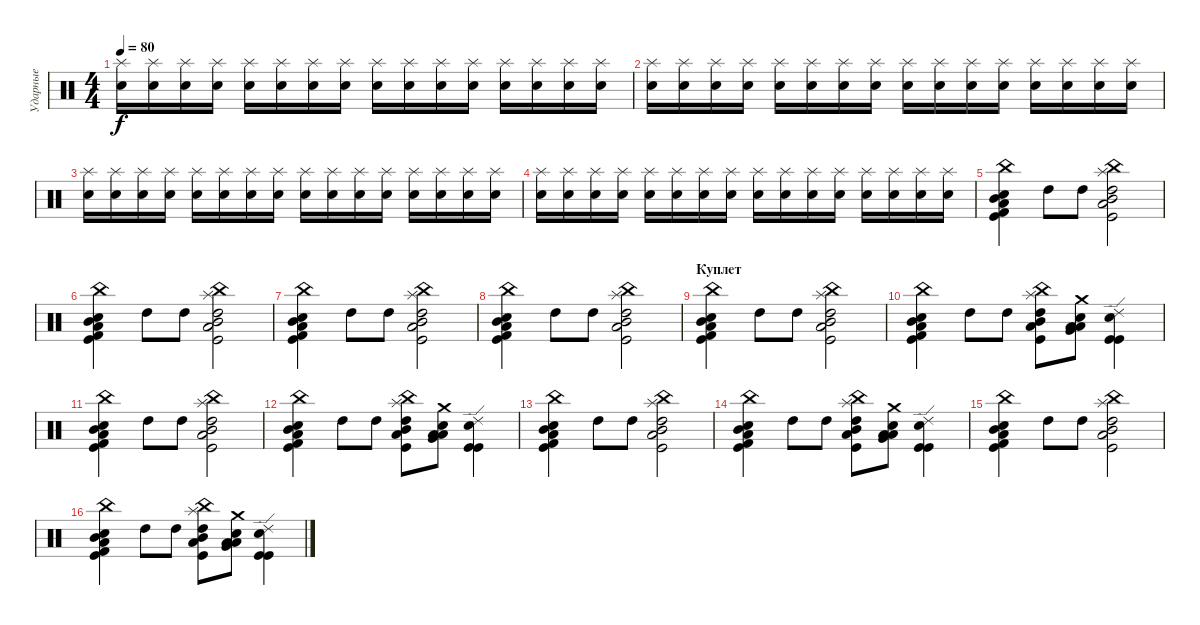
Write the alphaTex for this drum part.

\track ("Ударные" "Ударные") {instrument percussion}
\staff {score}
\articulation defaults
\ts (4 4)
\tempo 80
\clef neutral
\ks c
("Splash (hit)" "Snare (hit) 2").16{dy f} ("Splash (hit)" "Snare (hit) 2").16 ("Splash (hit)" "Snare (hit) 2").16 ("Splash (hit)" "Snare (hit) 2").16 ("Splash (hit)" "Snare (hit) 2").16 ("Splash (hit)" "Snare (hit) 2").16 ("Splash (hit)" "Snare (hit) 2").16 ("Splash (hit)" "Snare (hit) 2").16 ("Splash (hit)" "Snare (hit) 2").16 ("Splash (hit)" "Snare (hit) 2").16 ("Splash (hit)" "Snare (hit) 2").16 ("Splash (hit)" "Snare (hit) 2").16 ("Splash (hit)" "Snare (hit) 2").16 ("Splash (hit)" "Snare (hit) 2").16 ("Splash (hit)" "Snare (hit) 2").16 ("Splash (hit)" "Snare (hit) 2").16 |
("Splash (hit)" "Snare (hit) 2").16 ("Splash (hit)" "Snare (hit) 2").16 ("Splash (hit)" "Snare (hit) 2").16 ("Splash (hit)" "Snare (hit) 2").16 ("Splash (hit)" "Snare (hit) 2").16 ("Splash (hit)" "Snare (hit) 2").16 ("Splash (hit)" "Snare (hit) 2").16 ("Splash (hit)" "Snare (hit) 2").16 ("Splash (hit)" "Snare (hit) 2").16 ("Splash (hit)" "Snare (hit) 2").16 ("Splash (hit)" "Snare (hit) 2").16 ("Splash (hit)" "Snare (hit) 2").16 ("Splash (hit)" "Snare (hit) 2").16 ("Splash (hit)" "Snare (hit) 2").16 ("Splash (hit)" "Snare (hit) 2").16 ("Splash (hit)" "Snare (hit) 2").16 |
("Splash (hit)" "Snare (hit) 2").16 ("Splash (hit)" "Snare (hit) 2").16 ("Splash (hit)" "Snare (hit) 2").16 ("Splash (hit)" "Snare (hit) 2").16 ("Splash (hit)" "Snare (hit) 2").16 ("Splash (hit)" "Snare (hit) 2").16 ("Splash (hit)" "Snare (hit) 2").16 ("Splash (hit)" "Snare (hit) 2").16 ("Splash (hit)" "Snare (hit) 2").16 ("Splash (hit)" "Snare (hit) 2").16 ("Splash (hit)" "Snare (hit) 2").16 ("Splash (hit)" "Snare (hit) 2").16 ("Splash (hit)" "Snare (hit) 2").16 ("Splash (hit)" "Snare (hit) 2").16 ("Splash (hit)" "Snare (hit) 2").16 ("Splash (hit)" "Snare (hit) 2").16 |
("Splash (hit)" "Snare (hit) 2").16 ("Splash (hit)" "Snare (hit) 2").16 ("Splash (hit)" "Snare (hit) 2").16 ("Splash (hit)" "Snare (hit) 2").16 ("Splash (hit)" "Snare (hit) 2").16 ("Splash (hit)" "Snare (hit) 2").16 ("Splash (hit)" "Snare (hit) 2").16 ("Splash (hit)" "Snare (hit) 2").16 ("Splash (hit)" "Snare (hit) 2").16 ("Splash (hit)" "Snare (hit) 2").16 ("Splash (hit)" "Snare (hit) 2").16 ("Splash (hit)" "Snare (hit) 2").16 ("Splash (hit)" "Snare (hit) 2").16 ("Splash (hit)" "Snare (hit) 2").16 ("Splash (hit)" "Snare (hit) 2").16 ("Splash (hit)" "Snare (hit) 2").16 |
("Low Tom (hit)" "Mid Tom (hit)" "Snare (hit) 2" "Kick (hit) 2" "Kick (hit)" "China (hit)").4 "High Tom (hit)".8 "High Tom (hit)".8 ("Low Tom (hit)" "Mid Tom (hit)" "High Tom (hit)" "Kick (hit)" "China (hit)" "Splash (hit)").2 |
("Low Tom (hit)" "Mid Tom (hit)" "Snare (hit) 2" "Kick (hit) 2" "Kick (hit)" "China (hit)").4 "High Tom (hit)".8 "High Tom (hit)".8 ("Low Tom (hit)" "Mid Tom (hit)" "High Tom (hit)" "Kick (hit)" "China (hit)" "Splash (hit)").2 |
("Low Tom (hit)" "Mid Tom (hit)" "Snare (hit) 2" "Kick (hit) 2" "Kick (hit)" "China (hit)").4 "High Tom (hit)".8 "High Tom (hit)".8 ("Low Tom (hit)" "Mid Tom (hit)" "High Tom (hit)" "Kick (hit)" "China (hit)" "Splash (hit)").2 |
("Low Tom (hit)" "Mid Tom (hit)" "Snare (hit) 2" "Kick (hit) 2" "Kick (hit)" "China (hit)").4 "High Tom (hit)".8 "High Tom (hit)".8 ("Low Tom (hit)" "Mid Tom (hit)" "High Tom (hit)" "Kick (hit)" "China (hit)" "Splash (hit)").2 |
\section ("" "Куплет")
("Low Tom (hit)" "Mid Tom (hit)" "Snare (hit) 2" "Kick (hit) 2" "Kick (hit)" "China (hit)").4 "High Tom (hit)".8 "High Tom (hit)".8 ("Low Tom (hit)" "Mid Tom (hit)" "High Tom (hit)" "Kick (hit)" "China (hit)" "Splash (hit)").2 |
("Low Tom (hit)" "Mid Tom (hit)" "Snare (hit) 2" "Kick (hit) 2" "Kick (hit)" "China (hit)").4 "High Tom (hit)".8 "High Tom (hit)".8 ("Low Tom (hit)" "Mid Tom (hit)" "High Tom (hit)" "Kick (hit)" "China (hit)" "Splash (hit)").8 ("Low Floor Tom (hit)" "Low Tom (hit)" "Very Low Tom (hit)" "Snare (hit) 2" "Crash medium (hit)").8 ("Kick (hit)" "Kick (hit)" "Snare (hit) 2" "Ride (edge) 2").4 |
("Low Tom (hit)" "Mid Tom (hit)" "Snare (hit) 2" "Kick (hit) 2" "Kick (hit)" "China (hit)").4 "High Tom (hit)".8 "High Tom (hit)".8 ("Low Tom (hit)" "Mid Tom (hit)" "High Tom (hit)" "Kick (hit)" "China (hit)" "Splash (hit)").2 |
("Low Tom (hit)" "Mid Tom (hit)" "Snare (hit) 2" "Kick (hit) 2" "Kick (hit)" "China (hit)").4 "High Tom (hit)".8 "High Tom (hit)".8 ("Low Tom (hit)" "Mid Tom (hit)" "High Tom (hit)" "Kick (hit)" "China (hit)" "Splash (hit)").8 ("Low Floor Tom (hit)" "Low Tom (hit)" "Very Low Tom (hit)" "Snare (hit) 2" "Crash medium (hit)").8 ("Kick (hit)" "Kick (hit)" "Snare (hit) 2" "Ride (edge) 2").4 |
("Low Tom (hit)" "Mid Tom (hit)" "Snare (hit) 2" "Kick (hit) 2" "Kick (hit)" "China (hit)").4 "High Tom (hit)".8 "High Tom (hit)".8 ("Low Tom (hit)" "Mid Tom (hit)" "High Tom (hit)" "Kick (hit)" "China (hit)" "Splash (hit)").2 |
("Low Tom (hit)" "Mid Tom (hit)" "Snare (hit) 2" "Kick (hit) 2" "Kick (hit)" "China (hit)").4 "High Tom (hit)".8 "High Tom (hit)".8 ("Low Tom (hit)" "Mid Tom (hit)" "High Tom (hit)" "Kick (hit)" "China (hit)" "Splash (hit)").8 ("Low Floor Tom (hit)" "Low Tom (hit)" "Very Low Tom (hit)" "Snare (hit) 2" "Crash medium (hit)").8 ("Kick (hit)" "Kick (hit)" "Snare (hit) 2" "Ride (edge) 2").4 |
("Low Tom (hit)" "Mid Tom (hit)" "Snare (hit) 2" "Kick (hit) 2" "Kick (hit)" "China (hit)").4 "High Tom (hit)".8 "High Tom (hit)".8 ("Low Tom (hit)" "Mid Tom (hit)" "High Tom (hit)" "Kick (hit)" "China (hit)" "Splash (hit)").2 |
("Low Tom (hit)" "Mid Tom (hit)" "Snare (hit) 2" "Kick (hit) 2" "Kick (hit)" "China (hit)").4 "High Tom (hit)".8 "High Tom (hit)".8 ("Low Tom (hit)" "Mid Tom (hit)" "High Tom (hit)" "Kick (hit)" "China (hit)" "Splash (hit)").8 ("Low Floor Tom (hit)" "Low Tom (hit)" "Very Low Tom (hit)" "Snare (hit) 2" "Crash medium (hit)").8 ("Kick (hit)" "Kick (hit)" "Snare (hit) 2" "Ride (edge) 2").4
